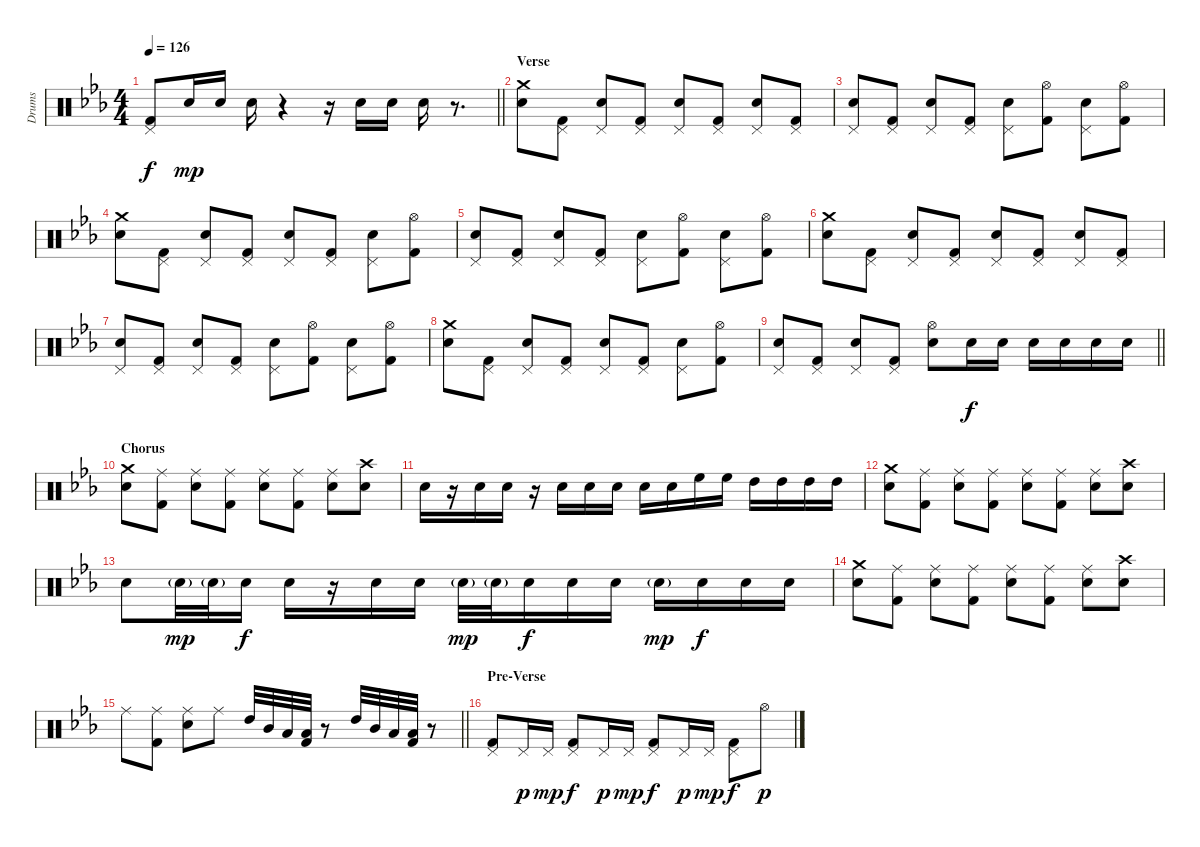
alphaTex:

\track ("Drums" "Drums") {instrument percussion}
\staff {score}
\articulation defaults
\ts (4 4)
\tempo 126
\clef neutral
\barLineRight lightlight
\ks eb
("Pedal Hi-Hat (hit)" "Kick (hit) 2").8{dy f} "Electric Snare (hit)".16{dy mp} "Electric Snare (hit)".16 "Electric Snare (hit)".16 r.4 r.16 "Electric Snare (hit)".16 "Electric Snare (hit)".16 "Electric Snare (hit)".16 r.8{d} |
\section ("" "Verse")
("Crash medium (hit)" "Electric Snare (hit)").8 ("Pedal Hi-Hat (hit)" "Kick (hit) 2").8 ("Pedal Hi-Hat (hit)" "Electric Snare (hit)").8 ("Pedal Hi-Hat (hit)" "Kick (hit) 2").8 ("Pedal Hi-Hat (hit)" "Electric Snare (hit)").8 ("Pedal Hi-Hat (hit)" "Kick (hit) 2").8 ("Pedal Hi-Hat (hit)" "Electric Snare (hit)").8 ("Pedal Hi-Hat (hit)" "Kick (hit) 2").8 |
("Pedal Hi-Hat (hit)" "Electric Snare (hit)").8 ("Pedal Hi-Hat (hit)" "Kick (hit) 2").8 ("Pedal Hi-Hat (hit)" "Electric Snare (hit)").8 ("Pedal Hi-Hat (hit)" "Kick (hit) 2").8 ("Pedal Hi-Hat (hit)" "Electric Snare (hit)").8 ("Hi-Hat (open)" "Kick (hit) 2").8 ("Pedal Hi-Hat (hit)" "Electric Snare (hit)").8 ("Hi-Hat (open)" "Kick (hit) 2").8 |
("Crash medium (hit)" "Electric Snare (hit)").8 ("Pedal Hi-Hat (hit)" "Kick (hit) 2").8 ("Pedal Hi-Hat (hit)" "Electric Snare (hit)").8 ("Pedal Hi-Hat (hit)" "Kick (hit) 2").8 ("Pedal Hi-Hat (hit)" "Electric Snare (hit)").8 ("Pedal Hi-Hat (hit)" "Kick (hit) 2").8 ("Pedal Hi-Hat (hit)" "Electric Snare (hit)").8 ("Hi-Hat (open)" "Kick (hit) 2").8 |
("Pedal Hi-Hat (hit)" "Electric Snare (hit)").8 ("Pedal Hi-Hat (hit)" "Kick (hit) 2").8 ("Pedal Hi-Hat (hit)" "Electric Snare (hit)").8 ("Pedal Hi-Hat (hit)" "Kick (hit) 2").8 ("Pedal Hi-Hat (hit)" "Electric Snare (hit)").8 ("Hi-Hat (open)" "Kick (hit) 2").8 ("Pedal Hi-Hat (hit)" "Electric Snare (hit)").8 ("Hi-Hat (open)" "Kick (hit) 2").8 |
("Crash medium (hit)" "Electric Snare (hit)").8 ("Pedal Hi-Hat (hit)" "Kick (hit) 2").8 ("Pedal Hi-Hat (hit)" "Electric Snare (hit)").8 ("Pedal Hi-Hat (hit)" "Kick (hit) 2").8 ("Pedal Hi-Hat (hit)" "Electric Snare (hit)").8 ("Pedal Hi-Hat (hit)" "Kick (hit) 2").8 ("Pedal Hi-Hat (hit)" "Electric Snare (hit)").8 ("Pedal Hi-Hat (hit)" "Kick (hit) 2").8 |
("Pedal Hi-Hat (hit)" "Electric Snare (hit)").8 ("Pedal Hi-Hat (hit)" "Kick (hit) 2").8 ("Pedal Hi-Hat (hit)" "Electric Snare (hit)").8 ("Pedal Hi-Hat (hit)" "Kick (hit) 2").8 ("Pedal Hi-Hat (hit)" "Electric Snare (hit)").8 ("Hi-Hat (open)" "Kick (hit) 2").8 ("Pedal Hi-Hat (hit)" "Electric Snare (hit)").8 ("Hi-Hat (open)" "Kick (hit) 2").8 |
("Crash medium (hit)" "Electric Snare (hit)").8 ("Pedal Hi-Hat (hit)" "Kick (hit) 2").8 ("Pedal Hi-Hat (hit)" "Electric Snare (hit)").8 ("Pedal Hi-Hat (hit)" "Kick (hit) 2").8 ("Pedal Hi-Hat (hit)" "Electric Snare (hit)").8 ("Pedal Hi-Hat (hit)" "Kick (hit) 2").8 ("Pedal Hi-Hat (hit)" "Electric Snare (hit)").8 ("Hi-Hat (open)" "Kick (hit) 2").8 |
\barLineRight lightlight
("Pedal Hi-Hat (hit)" "Electric Snare (hit)").8 ("Pedal Hi-Hat (hit)" "Kick (hit) 2").8 ("Pedal Hi-Hat (hit)" "Electric Snare (hit)").8 ("Pedal Hi-Hat (hit)" "Kick (hit) 2").8 ("Hi-Hat (open)" "Electric Snare (hit)").8 "Electric Snare (hit)".16{dy f} "Electric Snare (hit)".16 "Electric Snare (hit)".16 "Electric Snare (hit)".16 "Electric Snare (hit)".16 "Electric Snare (hit)".16 |
\section ("" "Chorus")
("Crash medium (hit)" "Electric Snare (hit)").8 ("Ride (middle)" "Kick (hit) 2").8 ("Ride (middle)" "Electric Snare (hit)").8 ("Ride (middle)" "Kick (hit) 2").8 ("Ride (middle)" "Electric Snare (hit)").8 ("Ride (middle)" "Kick (hit) 2").8 ("Ride (middle)" "Electric Snare (hit)").8 ("Crash high (hit)" "Electric Snare (hit)").8 |
"Electric Snare (hit)".16 r.16 "Electric Snare (hit)".16 "Electric Snare (hit)".16 r.16 "Electric Snare (hit)".16 "Electric Snare (hit)".16 "Electric Snare (hit)".16 "Electric Snare (hit)".16 "Electric Snare (hit)".16 "High Floor Tom (hit)".16 "High Floor Tom (hit)".16 "High Tom (hit)".16 "High Tom (hit)".16 "High Tom (hit)".16 "High Tom (hit)".16 |
("Crash medium (hit)" "Electric Snare (hit)").8 ("Ride (middle)" "Kick (hit) 2").8 ("Ride (middle)" "Electric Snare (hit)").8 ("Ride (middle)" "Kick (hit) 2").8 ("Ride (middle)" "Electric Snare (hit)").8 ("Ride (middle)" "Kick (hit) 2").8 ("Ride (middle)" "Electric Snare (hit)").8 ("Crash high (hit)" "Electric Snare (hit)").8 |
"Electric Snare (hit)".8 "Electric Snare (hit)"{g}.32{dy mp} "Electric Snare (hit)"{g}.32 "Electric Snare (hit)".16{dy f} "Electric Snare (hit)".16 r.16 "Electric Snare (hit)".16 "Electric Snare (hit)".16 "Electric Snare (hit)"{g}.32{dy mp} "Electric Snare (hit)"{g}.32 "Electric Snare (hit)".16{dy f} "Electric Snare (hit)".16 "Electric Snare (hit)".16 "Electric Snare (hit)"{g}.16{dy mp} "Electric Snare (hit)".16{dy f} "Electric Snare (hit)".16 "Electric Snare (hit)".16 |
("Crash medium (hit)" "Electric Snare (hit)").8 ("Ride (middle)" "Kick (hit) 2").8 ("Ride (middle)" "Electric Snare (hit)").8 ("Ride (middle)" "Kick (hit) 2").8 ("Ride (middle)" "Electric Snare (hit)").8 ("Ride (middle)" "Kick (hit) 2").8 ("Ride (middle)" "Electric Snare (hit)").8 ("Crash high (hit)" "Electric Snare (hit)").8 |
\barLineRight lightlight "Ride (middle)".8
("Ride (middle)" "Kick (hit) 2").8 ("Ride (middle)" "Electric Snare (hit)").8 "Ride (middle)".8 "High Tom (hit)".32 "Mid Tom (hit)".32 "Low Tom (hit)".32 ("Low Tom (hit)" "Kick (hit) 2").32 r.8 "High Tom (hit)".32 "Mid Tom (hit)".32 "Low Tom (hit)".32 ("Low Tom (hit)" "Kick (hit) 2").32 r.8 |
\section ("" "Pre-Verse")
("Pedal Hi-Hat (hit)" "Kick (hit) 2").8 "Pedal Hi-Hat (hit)".16{dy p} "Pedal Hi-Hat (hit)".16{dy mp} ("Pedal Hi-Hat (hit)" "Kick (hit) 2").8{dy f} "Pedal Hi-Hat (hit)".16{dy p} "Pedal Hi-Hat (hit)".16{dy mp} ("Pedal Hi-Hat (hit)" "Kick (hit) 2").8{dy f} "Pedal Hi-Hat (hit)".16{dy p} "Pedal Hi-Hat (hit)".16{dy mp} ("Pedal Hi-Hat (hit)" "Kick (hit) 2").8{dy f} "Hi-Hat (open)".8{dy p}
